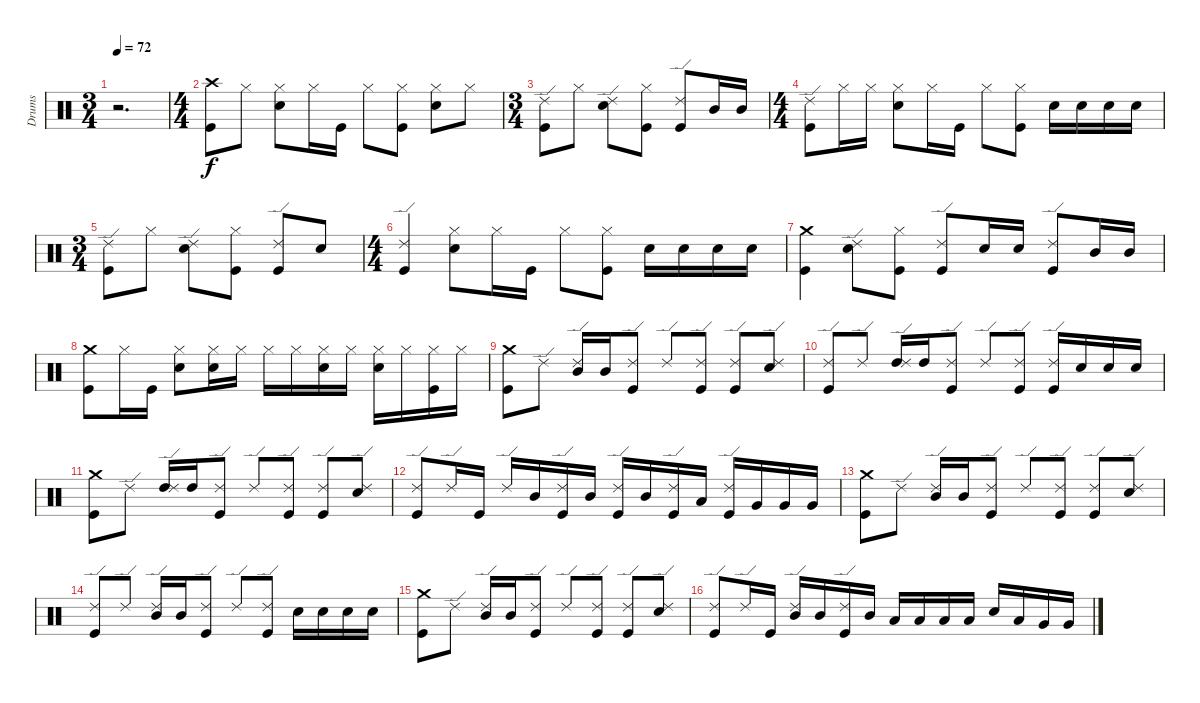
\track ("Drums" "Drums") {instrument percussion}
\staff {score}
\articulation defaults
\ts (3 4)
\tempo 72
\clef neutral
\ks c
r.2{d dy f} |
\ts (4 4)
("Kick (hit)" "Crash high (hit)").8 "Hi-Hat (closed)".8 ("Electric Snare (hit)" "Hi-Hat (closed)").8 "Hi-Hat (closed)".16 "Kick (hit)".16 "Hi-Hat (closed)".8 ("Kick (hit)" "Hi-Hat (closed)").8 ("Electric Snare (hit)" "Hi-Hat (closed)").8 "Hi-Hat (closed)".8 |
\ts (3 4)
("Kick (hit)" "Ride (edge) 2").8 "Hi-Hat (closed)".8 ("Electric Snare (hit)" "Ride (edge) 2").8 ("Kick (hit)" "Hi-Hat (closed)").8 ("Kick (hit)" "Ride (edge) 2").8 "Mid Tom (hit)".16 "Mid Tom (hit)".16 |
\ts (4 4)
("Kick (hit)" "Ride (edge) 2").8 "Hi-Hat (closed)".16 "Hi-Hat (closed)".16 ("Electric Snare (hit)" "Hi-Hat (closed)").8 "Hi-Hat (closed)".16 "Kick (hit)".16 "Hi-Hat (closed)".8 ("Kick (hit)" "Hi-Hat (closed)").8 "Electric Snare (hit)".16 "Electric Snare (hit)".16 "Electric Snare (hit)".16 "Electric Snare (hit)".16 |
\ts (3 4)
("Kick (hit)" "Ride (edge) 2").8 "Hi-Hat (closed)".8 ("Electric Snare (hit)" "Ride (edge) 2").8 ("Kick (hit)" "Hi-Hat (closed)").8 ("Kick (hit)" "Ride (edge) 2").8 "Electric Snare (hit)".8 |
\ts (4 4)
("Kick (hit)" "Ride (edge) 2").4 ("Electric Snare (hit)" "Hi-Hat (closed)").8 "Hi-Hat (closed)".16 "Kick (hit)".16 "Hi-Hat (closed)".8 ("Kick (hit)" "Hi-Hat (closed)").8 "Electric Snare (hit)".16 "Electric Snare (hit)".16 "Electric Snare (hit)".16 "Electric Snare (hit)".16 |
("Kick (hit)" "Crash medium (hit)").4 ("Electric Snare (hit)" "Ride (edge) 2").8 ("Kick (hit)" "Hi-Hat (closed)").8 ("Kick (hit)" "Ride (edge) 2").8 "Electric Snare (hit)".16 "Electric Snare (hit)".16 ("Kick (hit)" "Ride (edge) 2").8 "Mid Tom (hit)".16 "Mid Tom (hit)".16 |
("Kick (hit)" "Crash medium (hit)").8 "Hi-Hat (closed)".16 "Kick (hit)".16 ("Electric Snare (hit)" "Hi-Hat (closed)").8 ("Electric Snare (hit)" "Hi-Hat (closed)").16 "Hi-Hat (closed)".16 "Hi-Hat (closed)".16 "Hi-Hat (closed)".16 ("Electric Snare (hit)" "Hi-Hat (closed)").16 "Hi-Hat (closed)".16 ("Electric Snare (hit)" "Hi-Hat (closed)").16 "Hi-Hat (closed)".16 ("Kick (hit)" "Hi-Hat (closed)").16 "Hi-Hat (closed)".16 |
("Kick (hit)" "Crash medium (hit)").8 "Ride (edge) 2".8 ("Mid Tom (hit)" "Ride (edge) 2").16 "Mid Tom (hit)".16 ("Kick (hit)" "Ride (edge) 2").8 "Ride (edge) 2".8 ("Kick (hit)" "Ride (edge) 2").8 ("Kick (hit)" "Ride (edge) 2").8 ("Electric Snare (hit)" "Ride (edge) 2").8 |
("Kick (hit)" "Ride (edge) 2").8 "Ride (edge) 2".8 ("High Tom (hit)" "Ride (edge) 2").16 "High Tom (hit)".16 ("Kick (hit)" "Ride (edge) 2").8 "Ride (edge) 2".8 ("Kick (hit)" "Ride (edge) 2").8 ("Kick (hit)" "Ride (edge) 2").16 "Electric Snare (hit)".16 "Electric Snare (hit)".16 "Electric Snare (hit)".16 |
("Kick (hit)" "Crash medium (hit)").8 "Ride (edge) 2".8 ("High Tom (hit)" "Ride (edge) 2").16 "High Tom (hit)".16 ("Kick (hit)" "Ride (edge) 2").8 "Ride (edge) 2".8 ("Kick (hit)" "Ride (edge) 2").8 ("Kick (hit)" "Ride (edge) 2").8 ("Electric Snare (hit)" "Ride (edge) 2").8 |
("Kick (hit)" "Ride (edge) 2").8 "Ride (edge) 2".16 "Kick (hit)".16 "Ride (edge) 2".16 "Mid Tom (hit)".16 ("Kick (hit)" "Ride (edge) 2").16 "Mid Tom (hit)".16 ("Kick (hit)" "Ride (edge) 2").16 "Mid Tom (hit)".16 ("Kick (hit)" "Ride (edge) 2").16 "Low Tom (hit)".16 ("Kick (hit)" "Ride (edge) 2").16 "Very Low Tom (hit)".16 "Very Low Tom (hit)".16 "Very Low Tom (hit)".16 |
("Kick (hit)" "Crash medium (hit)").8 "Ride (edge) 2".8 ("Mid Tom (hit)" "Ride (edge) 2").16 "Mid Tom (hit)".16 ("Kick (hit)" "Ride (edge) 2").8 "Ride (edge) 2".8 ("Kick (hit)" "Ride (edge) 2").8 ("Kick (hit)" "Ride (edge) 2").8 ("Electric Snare (hit)" "Ride (edge) 2").8 |
("Kick (hit)" "Ride (edge) 2").8 "Ride (edge) 2".8 ("Mid Tom (hit)" "Ride (edge) 2").16 "Mid Tom (hit)".16 ("Kick (hit)" "Ride (edge) 2").8 "Ride (edge) 2".8 ("Kick (hit)" "Ride (edge) 2").8 "Electric Snare (hit)".16 "Electric Snare (hit)".16 "Electric Snare (hit)".16 "Electric Snare (hit)".16 |
("Kick (hit)" "Crash medium (hit)").8 "Ride (edge) 2".8 ("Mid Tom (hit)" "Ride (edge) 2").16 "Mid Tom (hit)".16 ("Kick (hit)" "Ride (edge) 2").8 "Ride (edge) 2".8 ("Kick (hit)" "Ride (edge) 2").8 ("Kick (hit)" "Ride (edge) 2").8 ("Electric Snare (hit)" "Ride (edge) 2").8 |
("Kick (hit)" "Ride (edge) 2").8 "Ride (edge) 2".16 "Kick (hit)".16 ("Mid Tom (hit)" "Ride (edge) 2").16 "Mid Tom (hit)".16 ("Kick (hit)" "Ride (edge) 2").16 "Mid Tom (hit)".16 "Low Tom (hit)".16 "Low Tom (hit)".16 "Low Tom (hit)".16 "Low Tom (hit)".16 "Electric Snare (hit)".16 "Low Tom (hit)".16 "Very Low Tom (hit)".16 "Very Low Tom (hit)".16
